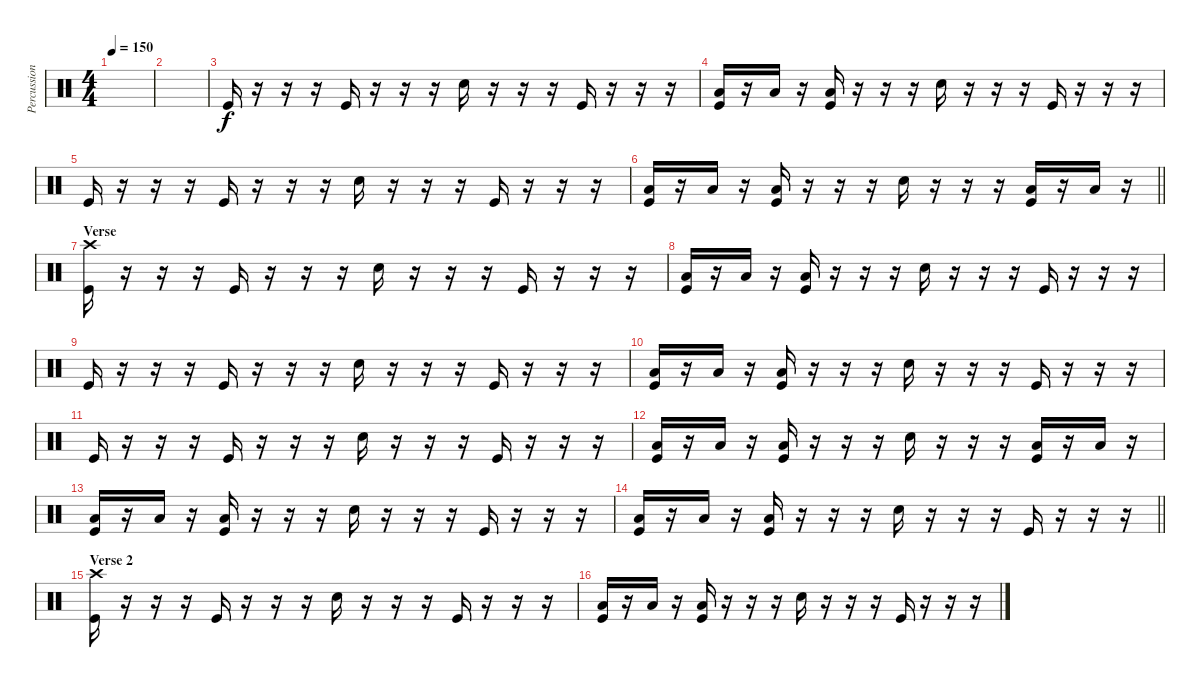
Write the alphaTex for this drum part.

\track ("Percussion" "Percussion") {instrument percussion}
\staff {score}
\articulation defaults
\ts (4 4)
\tempo 150
\clef neutral
\ks c
|
|
"Kick (hit)".16 r.16 r.16 r.16 "Kick (hit)".16 r.16 r.16 r.16 "Electric Snare (hit)".16 r.16 r.16 r.16 "Kick (hit)".16 r.16 r.16 r.16 |
("Low Floor Tom (hit)" "Kick (hit)").16 r.16 "Low Tom (hit)".16 r.16 ("Low Floor Tom (hit)" "Kick (hit)").16 r.16 r.16 r.16 "Electric Snare (hit)".16 r.16 r.16 r.16 "Kick (hit)".16 r.16 r.16 r.16 |
"Kick (hit)".16 r.16 r.16 r.16 "Kick (hit)".16 r.16 r.16 r.16 "Electric Snare (hit)".16 r.16 r.16 r.16 "Kick (hit)".16 r.16 r.16 r.16 |
\barLineRight lightlight
("Low Floor Tom (hit)" "Kick (hit)").16 r.16 "Low Tom (hit)".16 r.16 ("Low Floor Tom (hit)" "Kick (hit)").16 r.16 r.16 r.16 "Electric Snare (hit)".16 r.16 r.16 r.16 ("Low Floor Tom (hit)" "Kick (hit)").16 r.16 "Low Tom (hit)".16 r.16 |
\section ("" "Verse")
("Crash high (hit)" "Kick (hit)").16 r.16 r.16 r.16 "Kick (hit)".16 r.16 r.16 r.16 "Electric Snare (hit)".16 r.16 r.16 r.16 "Kick (hit)".16 r.16 r.16 r.16 |
("Low Floor Tom (hit)" "Kick (hit)").16 r.16 "Low Tom (hit)".16 r.16 ("Low Floor Tom (hit)" "Kick (hit)").16 r.16 r.16 r.16 "Electric Snare (hit)".16 r.16 r.16 r.16 "Kick (hit)".16 r.16 r.16 r.16 |
"Kick (hit)".16 r.16 r.16 r.16 "Kick (hit)".16 r.16 r.16 r.16 "Electric Snare (hit)".16 r.16 r.16 r.16 "Kick (hit)".16 r.16 r.16 r.16 |
("Low Floor Tom (hit)" "Kick (hit)").16 r.16 "Low Tom (hit)".16 r.16 ("Low Floor Tom (hit)" "Kick (hit)").16 r.16 r.16 r.16 "Electric Snare (hit)".16 r.16 r.16 r.16 "Kick (hit)".16 r.16 r.16 r.16 |
"Kick (hit)".16 r.16 r.16 r.16 "Kick (hit)".16 r.16 r.16 r.16 "Electric Snare (hit)".16 r.16 r.16 r.16 "Kick (hit)".16 r.16 r.16 r.16 |
("Low Floor Tom (hit)" "Kick (hit)").16 r.16 "Low Tom (hit)".16 r.16 ("Low Floor Tom (hit)" "Kick (hit)").16 r.16 r.16 r.16 "Electric Snare (hit)".16 r.16 r.16 r.16 ("Low Floor Tom (hit)" "Kick (hit)").16 r.16 "Low Tom (hit)".16 r.16 |
("Low Floor Tom (hit)" "Kick (hit)").16 r.16 "Low Tom (hit)".16 r.16 ("Low Floor Tom (hit)" "Kick (hit)").16 r.16 r.16 r.16 "Electric Snare (hit)".16 r.16 r.16 r.16 "Kick (hit)".16 r.16 r.16 r.16 |
\barLineRight lightlight
("Low Floor Tom (hit)" "Kick (hit)").16 r.16 "Low Tom (hit)".16 r.16 ("Low Floor Tom (hit)" "Kick (hit)").16 r.16 r.16 r.16 "Electric Snare (hit)".16 r.16 r.16 r.16 "Kick (hit)".16 r.16 r.16 r.16 |
\section ("" "Verse 2")
("Crash high (hit)" "Kick (hit)").16 r.16 r.16 r.16 "Kick (hit)".16 r.16 r.16 r.16 "Electric Snare (hit)".16 r.16 r.16 r.16 "Kick (hit)".16 r.16 r.16 r.16 |
("Low Floor Tom (hit)" "Kick (hit)").16 r.16 "Low Tom (hit)".16 r.16 ("Low Floor Tom (hit)" "Kick (hit)").16 r.16 r.16 r.16 "Electric Snare (hit)".16 r.16 r.16 r.16 "Kick (hit)".16 r.16 r.16 r.16
